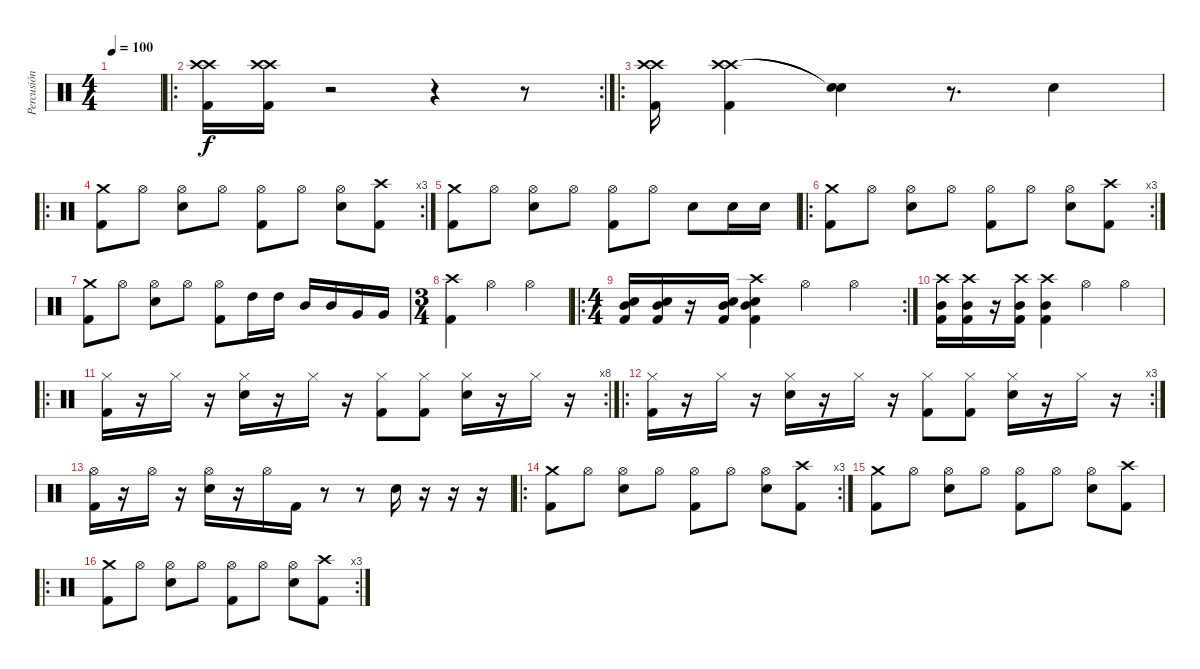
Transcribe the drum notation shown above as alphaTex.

\track ("Percusión" "Percusión") {instrument percussion}
\staff {score}
\articulation defaults
\ts (4 4)
\tempo 100
\clef neutral
\ks c
|
\ro
\rc 2
("Crash high (hit)" "Crash high (hit)" "Kick (hit) 2").16 ("Crash high (hit)" "Crash high (hit)" "Kick (hit) 2").16 r.2 r.4 r.8 |
\ro
("Crash high (hit)" "Crash high (hit)" "Kick (hit) 2").16 ("Crash high (hit)" "Crash high (hit)" "Kick (hit) 2").4 ("Snare (hit)"{t} "Snare (hit)"{t}).4 r.8{d} "Electric Snare (hit)".4 |
\ro
\rc 3
("Crash medium (hit)" "Kick (hit) 2").8 "Hi-Hat (open)".8 ("Hi-Hat (open)" "Electric Snare (hit)").8 "Hi-Hat (open)".8 ("Hi-Hat (open)" "Kick (hit) 2").8 "Hi-Hat (open)".8 ("Hi-Hat (open)" "Electric Snare (hit)").8 ("Crash high (hit)" "Kick (hit) 2").8 |
("Crash medium (hit)" "Kick (hit) 2").8 "Hi-Hat (open)".8 ("Hi-Hat (open)" "Electric Snare (hit)").8 "Hi-Hat (open)".8 ("Hi-Hat (open)" "Kick (hit) 2").8 "Hi-Hat (open)".8 "Electric Snare (hit)".8 "Electric Snare (hit)".16 "Electric Snare (hit)".16 |
\ro
\rc 3
("Crash medium (hit)" "Kick (hit) 2").8 "Hi-Hat (open)".8 ("Hi-Hat (open)" "Electric Snare (hit)").8 "Hi-Hat (open)".8 ("Hi-Hat (open)" "Kick (hit) 2").8 "Hi-Hat (open)".8 ("Hi-Hat (open)" "Electric Snare (hit)").8 ("Crash high (hit)" "Kick (hit) 2").8 |
("Crash medium (hit)" "Kick (hit) 2").8 "Hi-Hat (open)".8 ("Hi-Hat (open)" "Electric Snare (hit)").8 "Hi-Hat (open)".8 ("Hi-Hat (open)" "Kick (hit) 2").8 "High Tom (hit)".16 "High Tom (hit)".16 "Mid Tom (hit)".16 "Mid Tom (hit)".16 "Very Low Tom (hit)".16 "Very Low Tom (hit)".16 |
\ts (3 4)
("Crash high (hit)" "Kick (hit) 2").4 "Hi-Hat (open)".4 "Hi-Hat (open)".4 |
\ro
\rc 2
\ts (4 4)
("Mid Tom (hit)" "Electric Snare (hit)" "Kick (hit) 2").16 ("Mid Tom (hit)" "Electric Snare (hit)" "Kick (hit) 2").16 r.16 ("Mid Tom (hit)" "Electric Snare (hit)" "Kick (hit) 2").16 ("Crash high (hit)" "Mid Tom (hit)" "Electric Snare (hit)" "Kick (hit) 2").4 "Hi-Hat (open)".4 "Hi-Hat (open)".4 |
("Mid Tom (hit)" "Crash high (hit)" "Kick (hit) 2").16 ("Mid Tom (hit)" "Crash high (hit)" "Kick (hit) 2").16 r.16 ("Mid Tom (hit)" "Crash high (hit)" "Kick (hit) 2").16 ("Mid Tom (hit)" "Crash high (hit)" "Kick (hit) 2").4 "Hi-Hat (open)".4 "Hi-Hat (open)".4 |
\ro
\rc 8
("Hi-Hat (closed)" "Kick (hit) 2").16 r.16 "Hi-Hat (closed)".16 r.16 ("Hi-Hat (closed)" "Electric Snare (hit)").16 r.16 "Hi-Hat (closed)".16 r.16 ("Hi-Hat (closed)" "Kick (hit) 2").8 ("Hi-Hat (closed)" "Kick (hit) 2").8 ("Hi-Hat (closed)" "Electric Snare (hit)").16 r.16 "Hi-Hat (closed)".16 r.16 |
\ro
\rc 3
("Hi-Hat (closed)" "Kick (hit) 2").16 r.16 "Hi-Hat (closed)".16 r.16 ("Hi-Hat (closed)" "Electric Snare (hit)").16 r.16 "Hi-Hat (closed)".16 r.16 ("Hi-Hat (closed)" "Kick (hit) 2").8 ("Hi-Hat (closed)" "Kick (hit) 2").8 ("Hi-Hat (closed)" "Electric Snare (hit)").16 r.16 "Hi-Hat (closed)".16 r.16 |
("Hi-Hat (open)" "Kick (hit) 2").16 r.16 "Hi-Hat (open)".16 r.16 ("Hi-Hat (open)" "Electric Snare (hit)").16 r.16 "Hi-Hat (open)".16 "Kick (hit) 2".16 r.8 r.8 "Electric Snare (hit)".16 r.16 r.16 r.16 |
\ro
\rc 3
("Crash medium (hit)" "Kick (hit) 2").8 "Hi-Hat (open)".8 ("Hi-Hat (open)" "Electric Snare (hit)").8 "Hi-Hat (open)".8 ("Hi-Hat (open)" "Kick (hit) 2").8 "Hi-Hat (open)".8 ("Hi-Hat (open)" "Electric Snare (hit)").8 ("Crash high (hit)" "Kick (hit) 2").8 |
("Crash medium (hit)" "Kick (hit) 2").8 "Hi-Hat (open)".8 ("Hi-Hat (open)" "Electric Snare (hit)").8 "Hi-Hat (open)".8 ("Hi-Hat (open)" "Kick (hit) 2").8 "Hi-Hat (open)".8 ("Hi-Hat (open)" "Electric Snare (hit)").8 ("Crash high (hit)" "Kick (hit) 2").8 |
\ro
\rc 3
("Crash medium (hit)" "Kick (hit) 2").8 "Hi-Hat (open)".8 ("Hi-Hat (open)" "Electric Snare (hit)").8 "Hi-Hat (open)".8 ("Hi-Hat (open)" "Kick (hit) 2").8 "Hi-Hat (open)".8 ("Hi-Hat (open)" "Electric Snare (hit)").8 ("Crash high (hit)" "Kick (hit) 2").8
